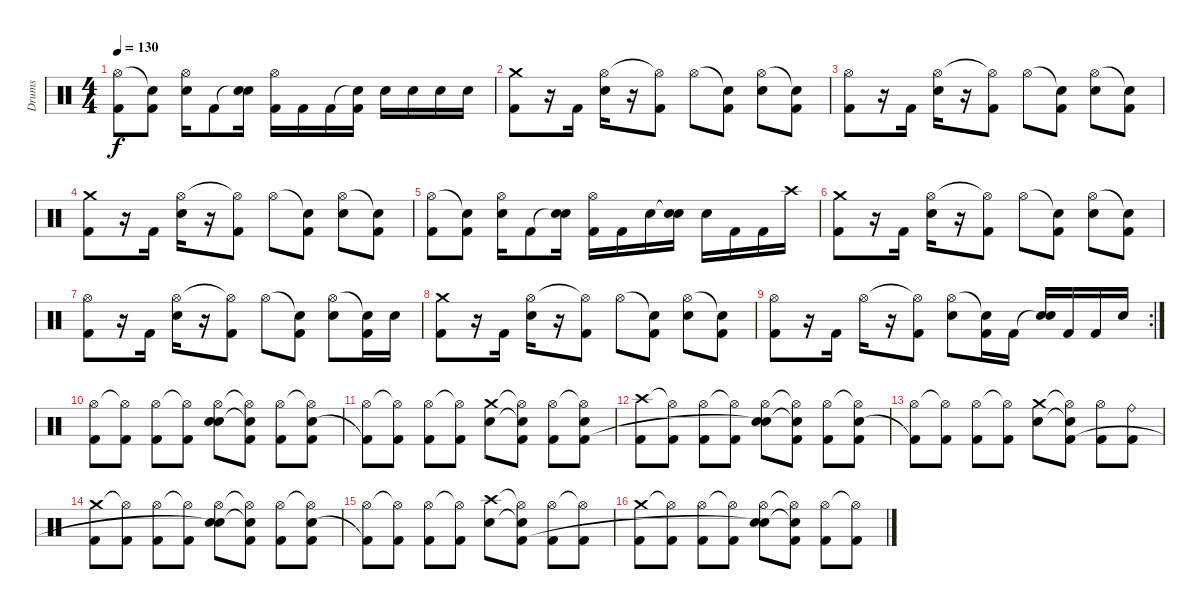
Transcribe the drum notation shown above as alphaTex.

\track ("Drums" "Drums") {instrument percussion}
\staff {score}
\articulation defaults
\ts (4 4)
\tempo 130
\clef neutral
\ks c
("Hi-Hat (open)" "Kick (hit) 2").8{dy f} ("Snare (hit)"{t} "Kick (hit) 2").8 ("Hi-Hat (open)" "Electric Snare (hit)").16 "Kick (hit) 2".8 ("Snare (hit)"{t} "Electric Snare (hit)").16 ("Hi-Hat (open)" "Kick (hit) 2").16 "Kick (hit) 2".16 "Kick (hit) 2".16 ("Snare (hit)"{t} "Kick (hit) 2").16 "Electric Snare (hit)".16 "Electric Snare (hit)".16 "Electric Snare (hit)".16 "Electric Snare (hit)".16 |
("Crash medium (hit)" "Kick (hit) 2").8 r.16 "Kick (hit) 2".16 ("Hi-Hat (open)" "Electric Snare (hit)").16 r.16 ("Hi-Hat (open)"{t} "Kick (hit) 2").8 "Hi-Hat (open)".8 ("Snare (hit)"{t} "Kick (hit) 2").8 ("Hi-Hat (open)" "Electric Snare (hit)").8 ("Snare (hit)"{t} "Kick (hit) 2").8 |
("Hi-Hat (open)" "Kick (hit) 2").8 r.16 "Kick (hit) 2".16 ("Hi-Hat (open)" "Electric Snare (hit)").16 r.16 ("Hi-Hat (open)"{t} "Kick (hit) 2").8 "Hi-Hat (open)".8 ("Snare (hit)"{t} "Kick (hit) 2").8 ("Hi-Hat (open)" "Electric Snare (hit)").8 ("Snare (hit)"{t} "Kick (hit) 2").8 |
("Crash medium (hit)" "Kick (hit) 2").8 r.16 "Kick (hit) 2".16 ("Hi-Hat (open)" "Electric Snare (hit)").16 r.16 ("Hi-Hat (open)"{t} "Kick (hit) 2").8 "Hi-Hat (open)".8 ("Snare (hit)"{t} "Kick (hit) 2").8 ("Hi-Hat (open)" "Electric Snare (hit)").8 ("Snare (hit)"{t} "Kick (hit) 2").8 |
("Hi-Hat (open)" "Kick (hit) 2").8 ("Snare (hit)"{t} "Kick (hit) 2").8 ("Hi-Hat (open)" "Electric Snare (hit)").16 "Kick (hit) 2".8 ("Snare (hit)"{t} "Electric Snare (hit)").16 ("Hi-Hat (open)" "Kick (hit) 2").16 "Kick (hit) 2".16 "Electric Snare (hit)".16 ("Snare (hit)"{t} "Electric Snare (hit)").16 "Electric Snare (hit)".16 "Kick (hit) 2".16 "Kick (hit) 2".16 "Crash high (hit)".16 |
("Crash medium (hit)" "Kick (hit) 2").8 r.16 "Kick (hit) 2".16 ("Hi-Hat (open)" "Electric Snare (hit)").16 r.16 ("Hi-Hat (open)"{t} "Kick (hit) 2").8 "Hi-Hat (open)".8 ("Snare (hit)"{t} "Kick (hit) 2").8 ("Hi-Hat (open)" "Electric Snare (hit)").8 ("Snare (hit)"{t} "Kick (hit) 2").8 |
("Hi-Hat (open)" "Kick (hit) 2").8 r.16 "Kick (hit) 2".16 ("Hi-Hat (open)" "Electric Snare (hit)").16 r.16 ("Hi-Hat (open)"{t} "Kick (hit) 2").8 "Hi-Hat (open)".8 ("Snare (hit)"{t} "Kick (hit) 2").8 ("Hi-Hat (open)" "Electric Snare (hit)").8 ("Snare (hit)"{t} "Kick (hit) 2").16 "Electric Snare (hit)".16 |
("Crash medium (hit)" "Kick (hit) 2").8 r.16 "Kick (hit) 2".16 ("Hi-Hat (open)" "Electric Snare (hit)").16 r.16 ("Hi-Hat (open)"{t} "Kick (hit) 2").8 "Hi-Hat (open)".8 ("Snare (hit)"{t} "Kick (hit) 2").8 ("Hi-Hat (open)" "Electric Snare (hit)").8 ("Snare (hit)"{t} "Kick (hit) 2").8 |
\rc 2
("Hi-Hat (open)" "Kick (hit) 2").8 r.16 "Kick (hit) 2".16 "Hi-Hat (open)".16 r.16 ("Hi-Hat (open)"{t} "Kick (hit) 2").8 ("Hi-Hat (open)" "Electric Snare (hit)").8 ("Snare (hit)"{t} "Kick (hit) 2").16 "Kick (hit) 2".16 ("Snare (hit)"{t} "Electric Snare (hit)").16 "Kick (hit) 2".16 "Kick (hit) 2".16 "Electric Snare (hit)".16 |
("Hi-Hat (open)" "Kick (hit) 2").8 ("Hi-Hat (open)"{t} "Kick (hit) 2").8 ("Hi-Hat (open)" "Kick (hit) 2").8 ("Hi-Hat (open)"{t} "Kick (hit) 2").8 ("Hi-Hat (open)" "Electric Snare (hit)" "Snare (hit)").8 ("Hi-Hat (open)"{t} "Snare (hit) 2"{t} "Kick (hit) 2").8 ("Hi-Hat (open)" "Kick (hit) 2").8 ("Hi-Hat (open)"{t} "Electric Snare (hit)" "Kick (hit) 2").8 |
("Hi-Hat (open)" "Kick (hit) 2"{t}).8 ("Hi-Hat (open)"{t} "Kick (hit) 2").8 ("Hi-Hat (open)" "Kick (hit) 2").8 ("Hi-Hat (open)"{t} "Kick (hit) 2").8 ("Crash medium (hit)" "Electric Snare (hit)").8 ("Hi-Hat (open)"{t} "Snare (hit)"{t} "Kick (hit) 2").8 ("Hi-Hat (open)" "Kick (hit) 2").8 ("Hi-Hat (open)"{t} "Electric Snare (hit)" "Kick (hit) 2").8 |
("Crash high (hit)" "Kick (hit) 2").8 ("Hi-Hat (open)"{t} "Kick (hit) 2").8 ("Hi-Hat (open)" "Kick (hit) 2").8 ("Hi-Hat (open)"{t} "Kick (hit) 2").8 ("Hi-Hat (open)" "Electric Snare (hit)" "Snare (hit)"{t}).8 ("Hi-Hat (open)"{t} "Snare (hit) 2"{t} "Kick (hit) 2").8 ("Hi-Hat (open)" "Kick (hit) 2").8 ("Hi-Hat (open)"{t} "Electric Snare (hit)" "Kick (hit) 2").8 |
("Hi-Hat (open)" "Kick (hit) 2"{t}).8 ("Hi-Hat (open)"{t} "Kick (hit) 2").8 ("Hi-Hat (open)" "Kick (hit) 2").8 ("Hi-Hat (open)"{t} "Kick (hit) 2").8 ("Crash medium (hit)" "Electric Snare (hit)").8 ("Hi-Hat (open)"{t} "Snare (hit)"{t} "Kick (hit) 2").8 ("Hi-Hat (open)" "Kick (hit) 2").8 ("Ride (bell)" "Kick (hit) 2").8 |
("Crash medium (hit)" "Kick (hit) 2").8 ("Hi-Hat (open)"{t} "Kick (hit) 2").8 ("Hi-Hat (open)" "Kick (hit) 2").8 ("Hi-Hat (open)"{t} "Kick (hit) 2").8 ("Hi-Hat (open)" "Electric Snare (hit)" "Snare (hit)"{t}).8 ("Hi-Hat (open)"{t} "Snare (hit) 2"{t} "Kick (hit) 2").8 ("Hi-Hat (open)" "Kick (hit) 2").8 ("Hi-Hat (open)"{t} "Electric Snare (hit)" "Kick (hit) 2").8 |
("Hi-Hat (open)" "Kick (hit) 2"{t}).8 ("Hi-Hat (open)"{t} "Kick (hit) 2").8 ("Hi-Hat (open)" "Kick (hit) 2").8 ("Hi-Hat (open)"{t} "Kick (hit) 2").8 ("Crash high (hit)" "Electric Snare (hit)").8 ("Hi-Hat (open)"{t} "Snare (hit)"{t} "Kick (hit) 2").8 ("Hi-Hat (open)" "Kick (hit) 2").8 ("Hi-Hat (open)"{t} "Kick (hit) 2").8 |
("Crash medium (hit)" "Kick (hit) 2").8 ("Hi-Hat (open)"{t} "Kick (hit) 2").8 ("Hi-Hat (open)" "Kick (hit) 2").8 ("Hi-Hat (open)"{t} "Kick (hit) 2").8 ("Hi-Hat (open)" "Electric Snare (hit)" "Snare (hit)"{t}).8 ("Hi-Hat (open)"{t} "Snare (hit) 2"{t} "Kick (hit) 2").8 ("Hi-Hat (open)" "Kick (hit) 2").8 ("Hi-Hat (open)"{t} "Kick (hit) 2").8
